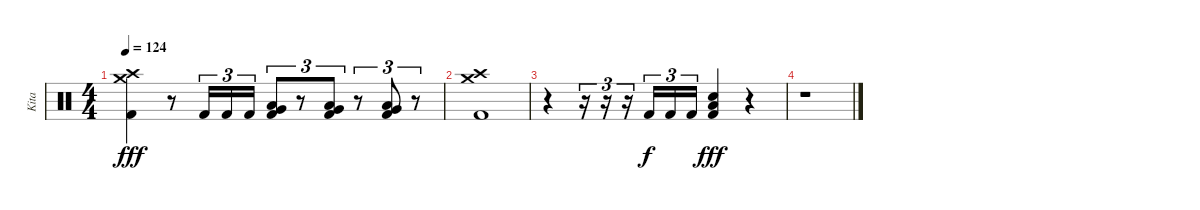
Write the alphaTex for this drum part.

\track ("Kita" "Kita") {instrument percussion}
\staff {score}
\articulation defaults
\ts (4 4)
\tempo 124
\clef neutral
\ks c
("Crash high (hit)" "Kick (hit) 2" "Crash medium (hit)").4{dy fff} r.8 "Kick (hit) 2".16{tu (3 2)} "Kick (hit) 2".16{tu (3 2)} "Kick (hit) 2".16{tu (3 2)} ("Low Tom (hit)" "Very Low Tom (hit)" "Kick (hit) 2").8{tu (3 2)} r.8{tu (3 2)} ("Low Tom (hit)" "Very Low Tom (hit)" "Kick (hit) 2").8{tu (3 2)} r.8{tu (3 2)} ("Low Tom (hit)" "Very Low Tom (hit)" "Kick (hit) 2").8{tu (3 2)} r.8{tu (3 2)} |
("Crash high (hit)" "Crash medium (hit)" "Kick (hit) 2").1 |
r.4 r.16{tu (3 2)} r.16{tu (3 2)} r.16{tu (3 2)} "Kick (hit) 2".16{tu (3 2) dy f} "Kick (hit) 2".16{tu (3 2)} "Kick (hit) 2".16{tu (3 2)} ("Electric Snare (hit)" "Low Floor Tom (hit)" "Kick (hit) 2").4{dy fff} r.4 |
r.1
